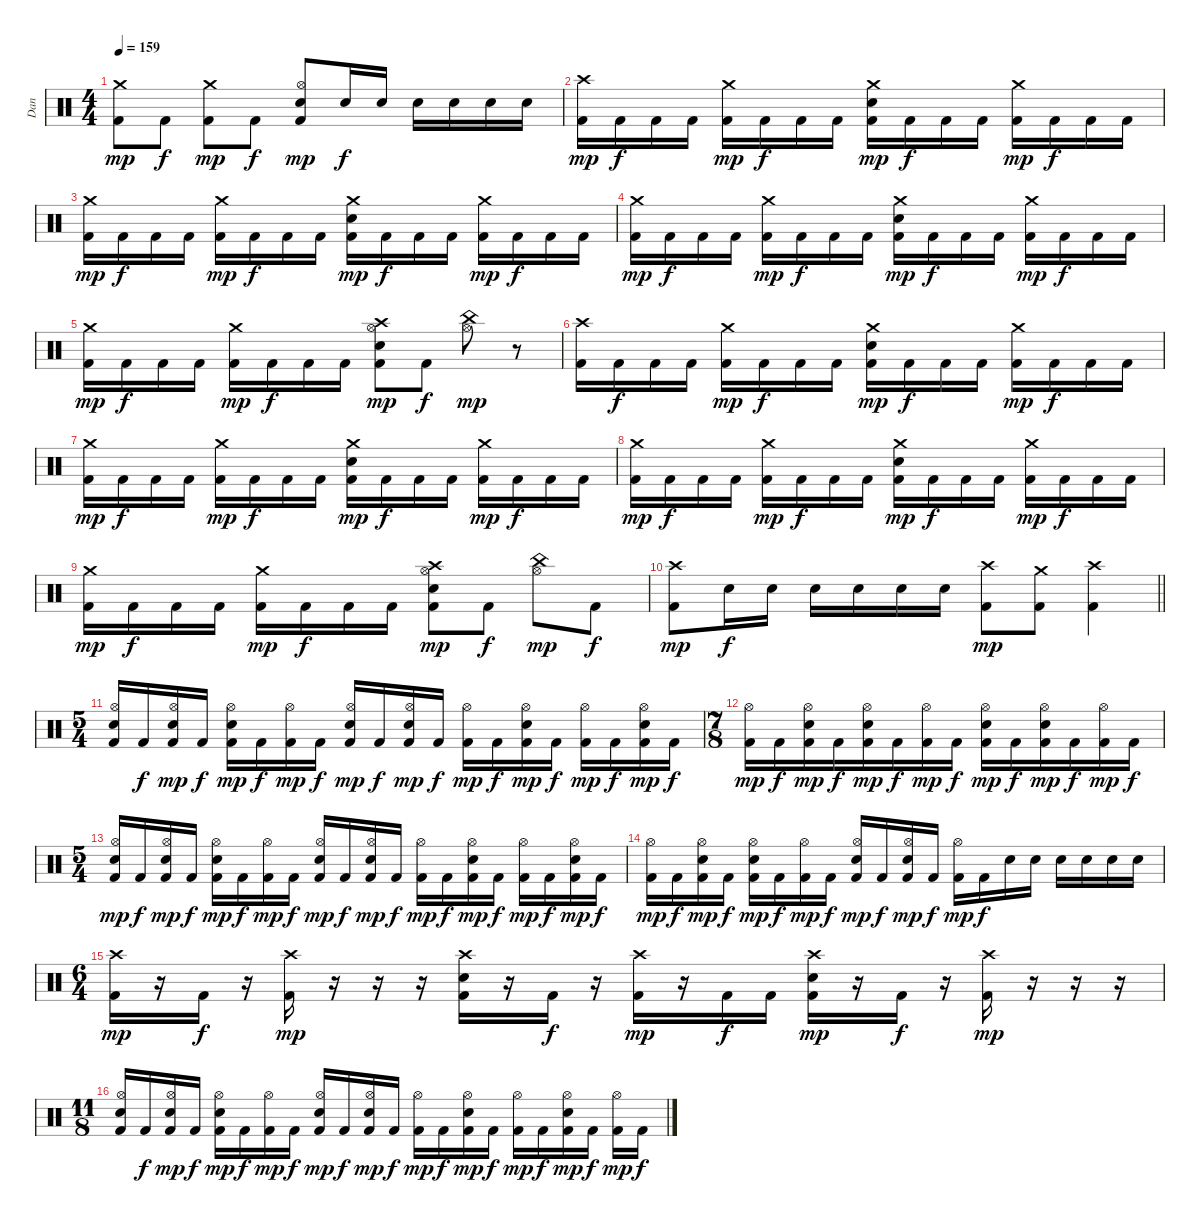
\track ("Dan" "Dan") {instrument percussion}
\staff {score}
\articulation defaults
\ts (4 4)
\tempo 159
\clef neutral
\ks c
("Crash medium (hit)" "Kick (hit) 2").8{dy mp} "Kick (hit) 2".8{dy f} ("Crash medium (hit)" "Kick (hit) 2").8{dy mp} "Kick (hit) 2".8{dy f} ("Hi-Hat (open)" "Snare (hit) 2" "Kick (hit) 2").8{dy mp} "Snare (hit) 2".16{dy f} "Snare (hit) 2".16 "Snare (hit) 2".16 "Snare (hit) 2".16 "Snare (hit) 2".16 "Snare (hit) 2".16 |
("Crash high (hit)" "Kick (hit) 2").16{dy mp} "Kick (hit) 2".16{dy f} "Kick (hit) 2".16 "Kick (hit) 2".16 ("Crash medium (hit)" "Kick (hit) 2").16{dy mp} "Kick (hit) 2".16{dy f} "Kick (hit) 2".16 "Kick (hit) 2".16 ("Crash medium (hit)" "Snare (hit) 2" "Kick (hit) 2").16{dy mp} "Kick (hit) 2".16{dy f} "Kick (hit) 2".16 "Kick (hit) 2".16 ("Crash medium (hit)" "Kick (hit) 2").16{dy mp} "Kick (hit) 2".16{dy f} "Kick (hit) 2".16 "Kick (hit) 2".16 |
("Crash medium (hit)" "Kick (hit) 2").16{dy mp} "Kick (hit) 2".16{dy f} "Kick (hit) 2".16 "Kick (hit) 2".16 ("Crash medium (hit)" "Kick (hit) 2").16{dy mp} "Kick (hit) 2".16{dy f} "Kick (hit) 2".16 "Kick (hit) 2".16 ("Crash medium (hit)" "Snare (hit) 2" "Kick (hit) 2").16{dy mp} "Kick (hit) 2".16{dy f} "Kick (hit) 2".16 "Kick (hit) 2".16 ("Crash medium (hit)" "Kick (hit) 2").16{dy mp} "Kick (hit) 2".16{dy f} "Kick (hit) 2".16 "Kick (hit) 2".16 |
("Crash medium (hit)" "Kick (hit) 2").16{dy mp} "Kick (hit) 2".16{dy f} "Kick (hit) 2".16 "Kick (hit) 2".16 ("Crash medium (hit)" "Kick (hit) 2").16{dy mp} "Kick (hit) 2".16{dy f} "Kick (hit) 2".16 "Kick (hit) 2".16 ("Crash medium (hit)" "Snare (hit) 2" "Kick (hit) 2").16{dy mp} "Kick (hit) 2".16{dy f} "Kick (hit) 2".16 "Kick (hit) 2".16 ("Crash medium (hit)" "Kick (hit) 2").16{dy mp} "Kick (hit) 2".16{dy f} "Kick (hit) 2".16 "Kick (hit) 2".16 |
("Crash medium (hit)" "Kick (hit) 2").16{dy mp} "Kick (hit) 2".16{dy f} "Kick (hit) 2".16 "Kick (hit) 2".16 ("Crash medium (hit)" "Kick (hit) 2").16{dy mp} "Kick (hit) 2".16{dy f} "Kick (hit) 2".16 "Kick (hit) 2".16 ("Crash high (hit)" "Hi-Hat (open)" "Snare (hit) 2" "Kick (hit) 2").8{dy mp} "Kick (hit) 2".8{dy f} ("China (hit)" "Hi-Hat (open)").8{dy mp} r.8 |
("Crash high (hit)" "Kick (hit) 2").16 "Kick (hit) 2".16{dy f} "Kick (hit) 2".16 "Kick (hit) 2".16 ("Crash medium (hit)" "Kick (hit) 2").16{dy mp} "Kick (hit) 2".16{dy f} "Kick (hit) 2".16 "Kick (hit) 2".16 ("Crash medium (hit)" "Snare (hit) 2" "Kick (hit) 2").16{dy mp} "Kick (hit) 2".16{dy f} "Kick (hit) 2".16 "Kick (hit) 2".16 ("Crash medium (hit)" "Kick (hit) 2").16{dy mp} "Kick (hit) 2".16{dy f} "Kick (hit) 2".16 "Kick (hit) 2".16 |
("Crash medium (hit)" "Kick (hit) 2").16{dy mp} "Kick (hit) 2".16{dy f} "Kick (hit) 2".16 "Kick (hit) 2".16 ("Crash medium (hit)" "Kick (hit) 2").16{dy mp} "Kick (hit) 2".16{dy f} "Kick (hit) 2".16 "Kick (hit) 2".16 ("Crash medium (hit)" "Snare (hit) 2" "Kick (hit) 2").16{dy mp} "Kick (hit) 2".16{dy f} "Kick (hit) 2".16 "Kick (hit) 2".16 ("Crash medium (hit)" "Kick (hit) 2").16{dy mp} "Kick (hit) 2".16{dy f} "Kick (hit) 2".16 "Kick (hit) 2".16 |
("Crash medium (hit)" "Kick (hit) 2").16{dy mp} "Kick (hit) 2".16{dy f} "Kick (hit) 2".16 "Kick (hit) 2".16 ("Crash medium (hit)" "Kick (hit) 2").16{dy mp} "Kick (hit) 2".16{dy f} "Kick (hit) 2".16 "Kick (hit) 2".16 ("Crash medium (hit)" "Snare (hit) 2" "Kick (hit) 2").16{dy mp} "Kick (hit) 2".16{dy f} "Kick (hit) 2".16 "Kick (hit) 2".16 ("Crash medium (hit)" "Kick (hit) 2").16{dy mp} "Kick (hit) 2".16{dy f} "Kick (hit) 2".16 "Kick (hit) 2".16 |
("Crash medium (hit)" "Kick (hit) 2").16{dy mp} "Kick (hit) 2".16{dy f} "Kick (hit) 2".16 "Kick (hit) 2".16 ("Crash medium (hit)" "Kick (hit) 2").16{dy mp} "Kick (hit) 2".16{dy f} "Kick (hit) 2".16 "Kick (hit) 2".16 ("Crash high (hit)" "Hi-Hat (open)" "Snare (hit) 2" "Kick (hit) 2").8{dy mp} "Kick (hit) 2".8{dy f} ("China (hit)" "Hi-Hat (open)").8{dy mp} "Kick (hit) 2".8{dy f} |
\barLineRight lightlight
("Crash high (hit)" "Kick (hit) 2").8{dy mp} "Snare (hit) 2".16{dy f} "Snare (hit) 2".16 "Snare (hit) 2".16 "Snare (hit) 2".16 "Snare (hit) 2".16 "Snare (hit) 2".16 ("Crash high (hit)" "Kick (hit) 2").8{dy mp} ("Crash medium (hit)" "Kick (hit) 2").8 ("Crash high (hit)" "Kick (hit) 2").4 |
\ts (5 4)
("Hi-Hat (open)" "Snare (hit) 2" "Kick (hit) 2").16 "Kick (hit) 2".16{dy f} ("Hi-Hat (open)" "Snare (hit) 2" "Kick (hit) 2").16{dy mp} "Kick (hit) 2".16{dy f} ("Hi-Hat (open)" "Snare (hit) 2" "Kick (hit) 2").16{dy mp} "Kick (hit) 2".16{dy f} ("Hi-Hat (open)" "Kick (hit) 2").16{dy mp} "Kick (hit) 2".16{dy f} ("Hi-Hat (open)" "Snare (hit) 2" "Kick (hit) 2").16{dy mp} "Kick (hit) 2".16{dy f} ("Hi-Hat (open)" "Snare (hit) 2" "Kick (hit) 2").16{dy mp} "Kick (hit) 2".16{dy f} ("Hi-Hat (open)" "Kick (hit) 2").16{dy mp} "Kick (hit) 2".16{dy f} ("Hi-Hat (open)" "Snare (hit) 2" "Kick (hit) 2").16{dy mp} "Kick (hit) 2".16{dy f} ("Hi-Hat (open)" "Kick (hit) 2").16{dy mp} "Kick (hit) 2".16{dy f} ("Hi-Hat (open)" "Snare (hit) 2" "Kick (hit) 2").16{dy mp} "Kick (hit) 2".16{dy f} |
\ts (7 8)
("Hi-Hat (open)" "Kick (hit) 2").16{dy mp} "Kick (hit) 2".16{dy f} ("Hi-Hat (open)" "Snare (hit) 2" "Kick (hit) 2").16{dy mp} "Kick (hit) 2".16{dy f} ("Hi-Hat (open)" "Snare (hit) 2" "Kick (hit) 2").16{dy mp} "Kick (hit) 2".16{dy f} ("Hi-Hat (open)" "Kick (hit) 2").16{dy mp} "Kick (hit) 2".16{dy f} ("Hi-Hat (open)" "Snare (hit) 2" "Kick (hit) 2").16{dy mp} "Kick (hit) 2".16{dy f} ("Hi-Hat (open)" "Snare (hit) 2" "Kick (hit) 2").16{dy mp} "Kick (hit) 2".16{dy f} ("Hi-Hat (open)" "Kick (hit) 2").16{dy mp} "Kick (hit) 2".16{dy f} |
\ts (5 4)
("Hi-Hat (open)" "Snare (hit) 2" "Kick (hit) 2").16{dy mp} "Kick (hit) 2".16{dy f} ("Hi-Hat (open)" "Snare (hit) 2" "Kick (hit) 2").16{dy mp} "Kick (hit) 2".16{dy f} ("Hi-Hat (open)" "Snare (hit) 2" "Kick (hit) 2").16{dy mp} "Kick (hit) 2".16{dy f} ("Hi-Hat (open)" "Kick (hit) 2").16{dy mp} "Kick (hit) 2".16{dy f} ("Hi-Hat (open)" "Snare (hit) 2" "Kick (hit) 2").16{dy mp} "Kick (hit) 2".16{dy f} ("Hi-Hat (open)" "Snare (hit) 2" "Kick (hit) 2").16{dy mp} "Kick (hit) 2".16{dy f} ("Hi-Hat (open)" "Kick (hit) 2").16{dy mp} "Kick (hit) 2".16{dy f} ("Hi-Hat (open)" "Snare (hit) 2" "Kick (hit) 2").16{dy mp} "Kick (hit) 2".16{dy f} ("Hi-Hat (open)" "Kick (hit) 2").16{dy mp} "Kick (hit) 2".16{dy f} ("Hi-Hat (open)" "Snare (hit) 2" "Kick (hit) 2").16{dy mp} "Kick (hit) 2".16{dy f} |
("Hi-Hat (open)" "Kick (hit) 2").16{dy mp} "Kick (hit) 2".16{dy f} ("Hi-Hat (open)" "Snare (hit) 2" "Kick (hit) 2").16{dy mp} "Kick (hit) 2".16{dy f} ("Hi-Hat (open)" "Snare (hit) 2" "Kick (hit) 2").16{dy mp} "Kick (hit) 2".16{dy f} ("Hi-Hat (open)" "Kick (hit) 2").16{dy mp} "Kick (hit) 2".16{dy f} ("Hi-Hat (open)" "Snare (hit) 2" "Kick (hit) 2").16{dy mp} "Kick (hit) 2".16{dy f} ("Hi-Hat (open)" "Snare (hit) 2" "Kick (hit) 2").16{dy mp} "Kick (hit) 2".16{dy f} ("Hi-Hat (open)" "Kick (hit) 2").16{dy mp} "Kick (hit) 2".16{dy f} "Snare (hit) 2".16 "Snare (hit) 2".16 "Snare (hit) 2".16 "Snare (hit) 2".16 "Snare (hit) 2".16 "Snare (hit) 2".16 |
\ts (6 4)
("Crash high (hit)" "Kick (hit) 2").16{dy mp} r.16 "Kick (hit) 2".16{dy f} r.16 ("Crash high (hit)" "Kick (hit) 2").16{dy mp} r.16 r.16 r.16 ("Crash high (hit)" "Snare (hit) 2" "Kick (hit) 2").16 r.16 "Kick (hit) 2".16{dy f} r.16 ("Crash high (hit)" "Kick (hit) 2").16{dy mp} r.16 "Kick (hit) 2".16{dy f} "Kick (hit) 2".16 ("Crash high (hit)" "Snare (hit) 2" "Kick (hit) 2").16{dy mp} r.16 "Kick (hit) 2".16{dy f} r.16 ("Crash high (hit)" "Kick (hit) 2").16{dy mp} r.16 r.16 r.16 |
\ts (11 8)
("Hi-Hat (open)" "Snare (hit) 2" "Kick (hit) 2").16 "Kick (hit) 2".16{dy f} ("Hi-Hat (open)" "Snare (hit) 2" "Kick (hit) 2").16{dy mp} "Kick (hit) 2".16{dy f} ("Hi-Hat (open)" "Snare (hit) 2" "Kick (hit) 2").16{dy mp} "Kick (hit) 2".16{dy f} ("Hi-Hat (open)" "Kick (hit) 2").16{dy mp} "Kick (hit) 2".16{dy f} ("Hi-Hat (open)" "Snare (hit) 2" "Kick (hit) 2").16{dy mp} "Kick (hit) 2".16{dy f} ("Hi-Hat (open)" "Snare (hit) 2" "Kick (hit) 2").16{dy mp} "Kick (hit) 2".16{dy f} ("Hi-Hat (open)" "Kick (hit) 2").16{dy mp} "Kick (hit) 2".16{dy f} ("Hi-Hat (open)" "Snare (hit) 2" "Kick (hit) 2").16{dy mp} "Kick (hit) 2".16{dy f} ("Hi-Hat (open)" "Kick (hit) 2").16{dy mp} "Kick (hit) 2".16{dy f} ("Hi-Hat (open)" "Snare (hit) 2" "Kick (hit) 2").16{dy mp} "Kick (hit) 2".16{dy f} ("Hi-Hat (open)" "Kick (hit) 2").16{dy mp} "Kick (hit) 2".16{dy f}
